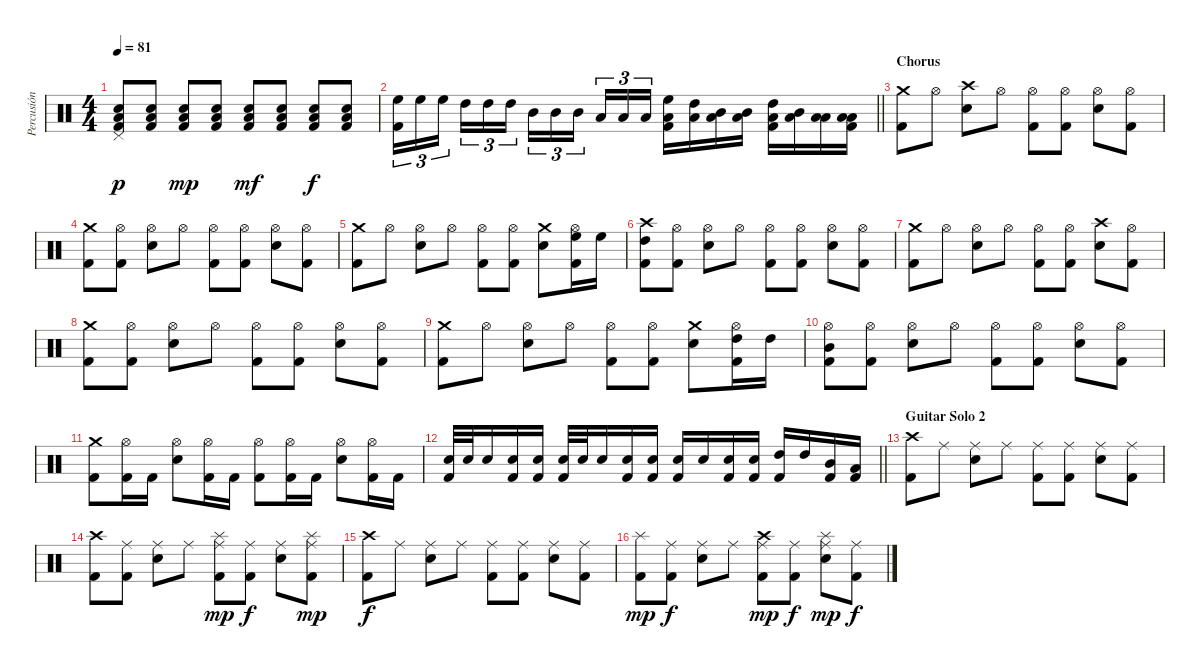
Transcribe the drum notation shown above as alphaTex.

\track ("Percusión" "Percusión") {instrument percussion}
\staff {score}
\articulation defaults
\ts (4 4)
\tempo 81
\clef neutral
\ks c
("Pedal Hi-Hat (hit)" "Low Floor Tom (hit)" "Snare (hit) 2" "Kick (hit) 2").8{dy p} ("Low Floor Tom (hit)" "Snare (hit) 2" "Kick (hit) 2").8 ("Low Floor Tom (hit)" "Snare (hit) 2" "Kick (hit) 2").8{dy mp} ("Low Floor Tom (hit)" "Snare (hit) 2" "Kick (hit) 2").8 ("Low Floor Tom (hit)" "Snare (hit) 2" "Kick (hit) 2").8{dy mf} ("Low Floor Tom (hit)" "Snare (hit) 2" "Kick (hit) 2").8 ("Low Floor Tom (hit)" "Snare (hit) 2" "Kick (hit) 2").8{dy f} ("Low Floor Tom (hit)" "Snare (hit) 2" "Kick (hit) 2").8 |
\barLineRight lightlight
("High Floor Tom (hit)" "Kick (hit) 2").16{tu (3 2)} "High Floor Tom (hit)".16{tu (3 2)} "High Floor Tom (hit)".16{tu (3 2) beam splitsecondary} "High Tom (hit)".16{tu (3 2)} "High Tom (hit)".16{tu (3 2)} "High Tom (hit)".16{tu (3 2)} "Mid Tom (hit)".16{tu (3 2)} "Mid Tom (hit)".16{tu (3 2)} "Mid Tom (hit)".16{tu (3 2) beam splitsecondary} "Low Tom (hit)".16{tu (3 2)} "Low Tom (hit)".16{tu (3 2)} "Low Tom (hit)".16{tu (3 2)} ("High Floor Tom (hit)" "Low Floor Tom (hit)" "Kick (hit) 2").16 ("High Tom (hit)" "Low Floor Tom (hit)").16 ("Mid Tom (hit)" "Low Floor Tom (hit)").16 ("Mid Tom (hit)" "Low Floor Tom (hit)").16 ("High Tom (hit)" "Low Floor Tom (hit)" "Kick (hit) 2").16 ("Mid Tom (hit)" "Low Floor Tom (hit)").16 ("Low Tom (hit)" "Low Floor Tom (hit)").16 ("Low Tom (hit)" "Low Floor Tom (hit)" "Kick (hit) 2").16 |
\section ("" "Chorus")
("Crash medium (hit)" "Kick (hit) 2").8 "Hi-Hat (open)".8 ("Crash high (hit)" "Snare (hit) 2").8 "Hi-Hat (open)".8 ("Hi-Hat (open)" "Kick (hit) 2").8 ("Hi-Hat (open)" "Kick (hit) 2").8 ("Hi-Hat (open)" "Snare (hit) 2").8 ("Hi-Hat (open)" "Kick (hit) 2").8 |
("Crash medium (hit)" "Kick (hit) 2").8 ("Hi-Hat (open)" "Kick (hit) 2").8 ("Hi-Hat (open)" "Snare (hit) 2").8 "Hi-Hat (open)".8 ("Hi-Hat (open)" "Kick (hit) 2").8 ("Hi-Hat (open)" "Kick (hit) 2").8 ("Hi-Hat (open)" "Snare (hit) 2").8 ("Hi-Hat (open)" "Kick (hit) 2").8 |
("Crash medium (hit)" "Kick (hit) 2").8 "Hi-Hat (open)".8 ("Hi-Hat (open)" "Snare (hit) 2").8 "Hi-Hat (open)".8 ("Hi-Hat (open)" "Kick (hit) 2").8 ("Hi-Hat (open)" "Kick (hit) 2").8 ("Crash medium (hit)" "Snare (hit) 2").8 ("Hi-Hat (open)" "High Floor Tom (hit)" "Kick (hit) 2").16 "High Floor Tom (hit)".16 |
("Crash high (hit)" "High Tom (hit)" "Kick (hit) 2").8 ("Hi-Hat (open)" "Kick (hit) 2").8 ("Hi-Hat (open)" "Snare (hit) 2").8 "Hi-Hat (open)".8 ("Hi-Hat (open)" "Kick (hit) 2").8 ("Hi-Hat (open)" "Kick (hit) 2").8 ("Hi-Hat (open)" "Snare (hit) 2").8 ("Hi-Hat (open)" "Kick (hit) 2").8 |
("Crash medium (hit)" "Kick (hit) 2").8 "Hi-Hat (open)".8 ("Hi-Hat (open)" "Snare (hit) 2").8 "Hi-Hat (open)".8 ("Hi-Hat (open)" "Kick (hit) 2").8 ("Hi-Hat (open)" "Kick (hit) 2").8 ("Crash high (hit)" "Snare (hit) 2").8 ("Hi-Hat (open)" "Kick (hit) 2").8 |
("Crash medium (hit)" "Kick (hit) 2").8 ("Hi-Hat (open)" "Kick (hit) 2").8 ("Hi-Hat (open)" "Snare (hit) 2").8 "Hi-Hat (open)".8 ("Hi-Hat (open)" "Kick (hit) 2").8 ("Hi-Hat (open)" "Kick (hit) 2").8 ("Hi-Hat (open)" "Snare (hit) 2").8 ("Hi-Hat (open)" "Kick (hit) 2").8 |
("Crash medium (hit)" "Kick (hit) 2").8 "Hi-Hat (open)".8 ("Hi-Hat (open)" "Snare (hit) 2").8 "Hi-Hat (open)".8 ("Hi-Hat (open)" "Kick (hit) 2").8 ("Hi-Hat (open)" "Kick (hit) 2").8 ("Crash medium (hit)" "Snare (hit) 2").8 ("Hi-Hat (open)" "High Tom (hit)" "Kick (hit) 2").16 "High Tom (hit)".16 |
("Hi-Hat (open)" "Mid Tom (hit)" "Kick (hit) 2").8 ("Hi-Hat (open)" "Kick (hit) 2").8 ("Hi-Hat (open)" "Snare (hit) 2").8 "Hi-Hat (open)".8 ("Hi-Hat (open)" "Kick (hit) 2").8 ("Hi-Hat (open)" "Kick (hit) 2").8 ("Hi-Hat (open)" "Snare (hit) 2").8 ("Hi-Hat (open)" "Kick (hit) 2").8 |
("Crash medium (hit)" "Kick (hit) 2").8 ("Hi-Hat (open)" "Kick (hit) 2").16 "Kick (hit) 2".16 ("Hi-Hat (open)" "Snare (hit) 2").8 ("Hi-Hat (open)" "Kick (hit) 2").16 "Kick (hit) 2".16 ("Hi-Hat (open)" "Kick (hit) 2").8 ("Hi-Hat (open)" "Kick (hit) 2").16 "Kick (hit) 2".16 ("Hi-Hat (open)" "Snare (hit) 2").8 ("Hi-Hat (open)" "Kick (hit) 2").16 "Kick (hit) 2".16 |
\barLineRight lightlight
("Snare (hit) 2" "Kick (hit) 2").32 "Snare (hit) 2".32 "Snare (hit) 2".16 ("Snare (hit) 2" "Kick (hit) 2").16 ("Snare (hit) 2" "Kick (hit) 2").16 ("Snare (hit) 2" "Kick (hit) 2").32 "Snare (hit) 2".32 "Snare (hit) 2".16 ("Snare (hit) 2" "Kick (hit) 2").16 ("Snare (hit) 2" "Kick (hit) 2").16 ("Snare (hit) 2" "Kick (hit) 2").16 "Snare (hit) 2".16 ("Snare (hit) 2" "Kick (hit) 2").16 ("Snare (hit) 2" "Kick (hit) 2").16 ("High Tom (hit)" "Kick (hit) 2").16 "High Tom (hit)".16 ("Mid Tom (hit)" "Kick (hit) 2").16 ("Low Tom (hit)" "Kick (hit) 2").16 |
\section ("" "Guitar Solo 2")
("Crash high (hit)" "Kick (hit) 2").8 "Ride (middle)".8 ("Ride (middle)" "Snare (hit) 2").8 "Ride (middle)".8 ("Ride (middle)" "Kick (hit) 2").8 ("Ride (middle)" "Kick (hit) 2").8 ("Ride (middle)" "Snare (hit) 2").8 ("Ride (middle)" "Kick (hit) 2").8 |
("Crash high (hit)" "Kick (hit) 2").8 ("Ride (middle)" "Kick (hit) 2").8 ("Ride (middle)" "Snare (hit) 2").8 "Ride (middle)".8 ("Splash (hit)" "Ride (middle)" "Kick (hit) 2").8{dy mp} ("Ride (middle)" "Kick (hit) 2").8{dy f} ("Ride (middle)" "Snare (hit) 2").8 ("Splash (hit)" "Ride (middle)" "Kick (hit) 2").8{dy mp} |
("Crash high (hit)" "Kick (hit) 2").8{dy f} "Ride (middle)".8 ("Ride (middle)" "Snare (hit) 2").8 "Ride (middle)".8 ("Ride (middle)" "Kick (hit) 2").8 ("Ride (middle)" "Kick (hit) 2").8 ("Ride (middle)" "Snare (hit) 2").8 ("Ride (middle)" "Kick (hit) 2").8 |
("Splash (hit)" "Kick (hit) 2").8{dy mp} ("Ride (middle)" "Kick (hit) 2").8{dy f} ("Ride (middle)" "Snare (hit) 2").8 "Ride (middle)".8 ("Crash high (hit)" "Ride (middle)" "Kick (hit) 2").8{dy mp} ("Ride (middle)" "Kick (hit) 2").8{dy f} ("Splash (hit)" "Ride (middle)" "Snare (hit) 2").8{dy mp} ("Ride (middle)" "Kick (hit) 2").8{dy f}
